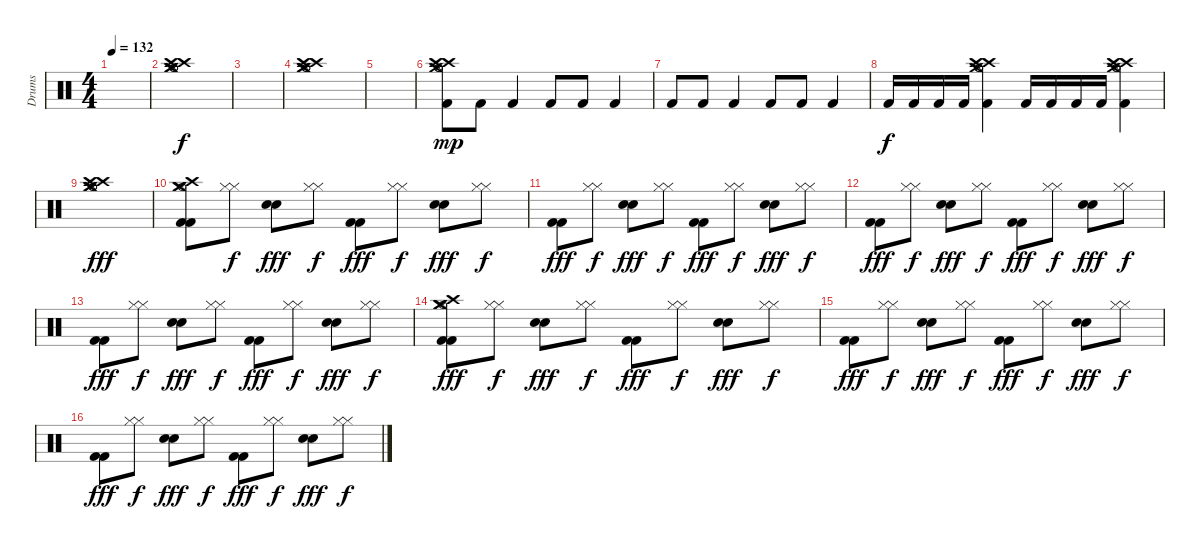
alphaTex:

\track ("Drums" "Drums") {instrument percussion}
\staff {score}
\articulation defaults
\ts (4 4)
\tempo 132
\clef neutral
\ks c
|
("Crash high (hit)" "Hi-Hat (open)" "Crash medium (hit)" "Crash high (hit)" "Hi-Hat (open)" "Crash medium (hit)").1 |
|
("Crash high (hit)" "Hi-Hat (open)" "Crash medium (hit)" "Crash high (hit)" "Hi-Hat (open)" "Crash medium (hit)").1 |
|
("Crash high (hit)" "Hi-Hat (open)" "Crash medium (hit)" "Crash high (hit)" "Hi-Hat (open)" "Kick (hit) 2").8{dy mp} "Kick (hit) 2".8 "Kick (hit) 2".4 "Kick (hit) 2".8 "Kick (hit) 2".8 "Kick (hit) 2".4 |
"Kick (hit) 2".8 "Kick (hit) 2".8 "Kick (hit) 2".4 "Kick (hit) 2".8 "Kick (hit) 2".8 "Kick (hit) 2".4 |
"Kick (hit) 2".16{dy f} "Kick (hit) 2".16 "Kick (hit) 2".16 "Kick (hit) 2".16 ("Crash high (hit)" "Hi-Hat (open)" "Crash medium (hit)" "Crash high (hit)" "Hi-Hat (open)" "Kick (hit) 2").4 "Kick (hit) 2".16 "Kick (hit) 2".16 "Kick (hit) 2".16 "Kick (hit) 2".16 ("Crash high (hit)" "Hi-Hat (open)" "Crash medium (hit)" "Crash high (hit)" "Hi-Hat (open)" "Kick (hit) 2").4 |
("Crash high (hit)" "Hi-Hat (open)" "Crash medium (hit)" "Crash high (hit)" "Hi-Hat (open)" "Crash medium (hit)").1{dy fff} |
("Kick (hit) 2" "Kick (hit) 2" "Crash high (hit)" "Hi-Hat (open)" "Crash medium (hit)" "Crash medium (hit)").8 ("Hi-Hat (closed)" "Hi-Hat (closed)").8{dy f} ("Snare (hit) 2" "Snare (hit) 2").8{dy fff} ("Hi-Hat (closed)" "Hi-Hat (closed)").8{dy f} ("Kick (hit) 2" "Kick (hit) 2").8{dy fff} ("Hi-Hat (closed)" "Hi-Hat (closed)").8{dy f} ("Snare (hit) 2" "Snare (hit) 2").8{dy fff} ("Hi-Hat (closed)" "Hi-Hat (closed)").8{dy f} |
("Kick (hit) 2" "Kick (hit) 2").8{dy fff} ("Hi-Hat (closed)" "Hi-Hat (closed)").8{dy f} ("Snare (hit) 2" "Snare (hit) 2").8{dy fff} ("Hi-Hat (closed)" "Hi-Hat (closed)").8{dy f} ("Kick (hit) 2" "Kick (hit) 2").8{dy fff} ("Hi-Hat (closed)" "Hi-Hat (closed)").8{dy f} ("Snare (hit) 2" "Snare (hit) 2").8{dy fff} ("Hi-Hat (closed)" "Hi-Hat (closed)").8{dy f} |
("Kick (hit) 2" "Kick (hit) 2").8{dy fff} ("Hi-Hat (closed)" "Hi-Hat (closed)").8{dy f} ("Snare (hit) 2" "Snare (hit) 2").8{dy fff} ("Hi-Hat (closed)" "Hi-Hat (closed)").8{dy f} ("Kick (hit) 2" "Kick (hit) 2").8{dy fff} ("Hi-Hat (closed)" "Hi-Hat (closed)").8{dy f} ("Snare (hit) 2" "Snare (hit) 2").8{dy fff} ("Hi-Hat (closed)" "Hi-Hat (closed)").8{dy f} |
("Kick (hit) 2" "Kick (hit) 2").8{dy fff} ("Hi-Hat (closed)" "Hi-Hat (closed)").8{dy f} ("Snare (hit) 2" "Snare (hit) 2").8{dy fff} ("Hi-Hat (closed)" "Hi-Hat (closed)").8{dy f} ("Kick (hit) 2" "Kick (hit) 2").8{dy fff} ("Hi-Hat (closed)" "Hi-Hat (closed)").8{dy f} ("Snare (hit) 2" "Snare (hit) 2").8{dy fff} ("Hi-Hat (closed)" "Hi-Hat (closed)").8{dy f} |
("Kick (hit) 2" "Kick (hit) 2" "Crash high (hit)" "Hi-Hat (open)" "Crash medium (hit)" "Crash medium (hit)").8{dy fff} ("Hi-Hat (closed)" "Hi-Hat (closed)").8{dy f} ("Snare (hit) 2" "Snare (hit) 2").8{dy fff} ("Hi-Hat (closed)" "Hi-Hat (closed)").8{dy f} ("Kick (hit) 2" "Kick (hit) 2").8{dy fff} ("Hi-Hat (closed)" "Hi-Hat (closed)").8{dy f} ("Snare (hit) 2" "Snare (hit) 2").8{dy fff} ("Hi-Hat (closed)" "Hi-Hat (closed)").8{dy f} |
("Kick (hit) 2" "Kick (hit) 2").8{dy fff} ("Hi-Hat (closed)" "Hi-Hat (closed)").8{dy f} ("Snare (hit) 2" "Snare (hit) 2").8{dy fff} ("Hi-Hat (closed)" "Hi-Hat (closed)").8{dy f} ("Kick (hit) 2" "Kick (hit) 2").8{dy fff} ("Hi-Hat (closed)" "Hi-Hat (closed)").8{dy f} ("Snare (hit) 2" "Snare (hit) 2").8{dy fff} ("Hi-Hat (closed)" "Hi-Hat (closed)").8{dy f} |
("Kick (hit) 2" "Kick (hit) 2").8{dy fff} ("Hi-Hat (closed)" "Hi-Hat (closed)").8{dy f} ("Snare (hit) 2" "Snare (hit) 2").8{dy fff} ("Hi-Hat (closed)" "Hi-Hat (closed)").8{dy f} ("Kick (hit) 2" "Kick (hit) 2").8{dy fff} ("Hi-Hat (closed)" "Hi-Hat (closed)").8{dy f} ("Snare (hit) 2" "Snare (hit) 2").8{dy fff} ("Hi-Hat (closed)" "Hi-Hat (closed)").8{dy f}
